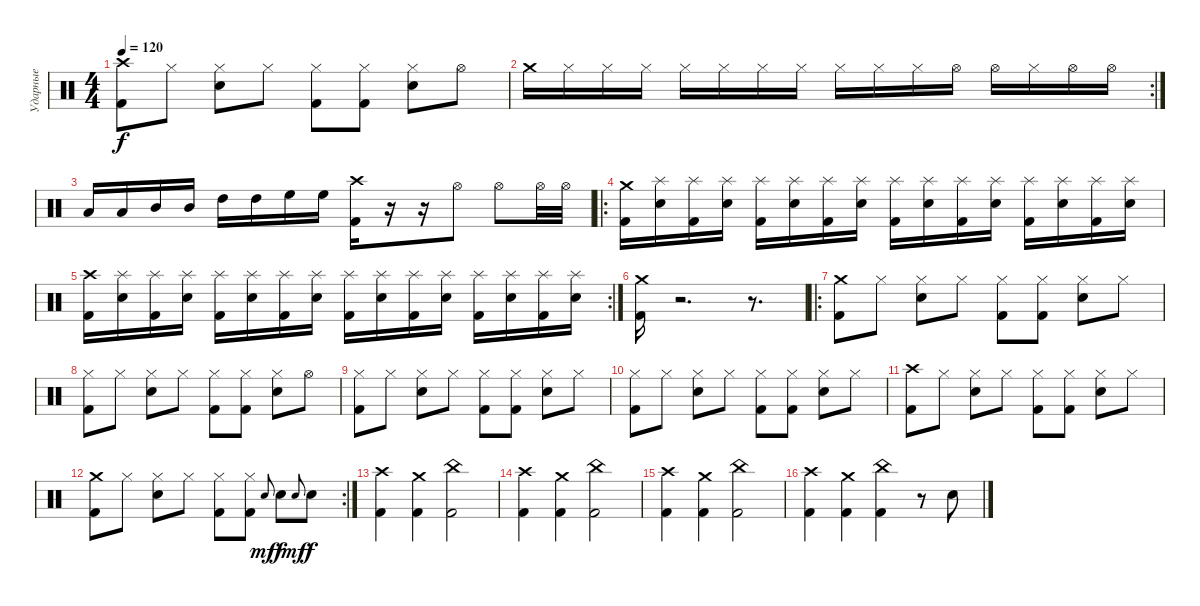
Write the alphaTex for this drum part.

\track ("Ударные" "Ударные") {instrument percussion}
\staff {score}
\articulation defaults
\ts (4 4)
\tempo 120
\clef neutral
\ks c
("Crash high (hit)" "Kick (hit) 2").8{dy f} "Hi-Hat (closed)".8 ("Hi-Hat (closed)" "Electric Snare (hit)").8 "Hi-Hat (closed)".8 ("Hi-Hat (closed)" "Kick (hit) 2").8 ("Hi-Hat (closed)" "Kick (hit) 2").8 ("Hi-Hat (closed)" "Electric Snare (hit)").8 "Hi-Hat (open)".8 |
\rc 2 "Crash medium (hit)".16 "Hi-Hat (closed)".16 "Hi-Hat (closed)".16 "Hi-Hat (closed)".16 "Hi-Hat (closed)".16 "Hi-Hat (closed)".16 "Hi-Hat (closed)".16 "Hi-Hat (closed)".16 "Hi-Hat (closed)".16 "Hi-Hat (closed)".16 "Hi-Hat (closed)".16 "Hi-Hat (open)".16 "Hi-Hat (open)".16 "Hi-Hat (closed)".16 "Hi-Hat (open)".16 "Hi-Hat (open)".16
|
"Low Tom (hit)".16 "Low Tom (hit)".16 "Mid Tom (hit)".16 "Mid Tom (hit)".16 "High Tom (hit)".16 "High Tom (hit)".16 "High Floor Tom (hit)".16 "High Floor Tom (hit)".16 ("Crash high (hit)" "Kick (hit) 2").16 r.16 r.16 "Hi-Hat (open)".8 "Hi-Hat (open)".8 "Hi-Hat (open)".32 "Hi-Hat (open)".32 |
\ro
("Crash medium (hit)" "Kick (hit) 2").16 ("Splash (hit)" "Electric Snare (hit)").16 ("Splash (hit)" "Kick (hit) 2").16 ("Splash (hit)" "Electric Snare (hit)").16 ("Splash (hit)" "Kick (hit) 2").16 ("Splash (hit)" "Electric Snare (hit)").16 ("Splash (hit)" "Kick (hit) 2").16 ("Splash (hit)" "Electric Snare (hit)").16 ("Splash (hit)" "Kick (hit) 2").16 ("Splash (hit)" "Electric Snare (hit)").16 ("Splash (hit)" "Kick (hit) 2").16 ("Splash (hit)" "Electric Snare (hit)").16 ("Splash (hit)" "Kick (hit) 2").16 ("Splash (hit)" "Electric Snare (hit)").16 ("Splash (hit)" "Kick (hit) 2").16 ("Splash (hit)" "Electric Snare (hit)").16 |
\rc 2
("Crash high (hit)" "Kick (hit) 2").16 ("Splash (hit)" "Electric Snare (hit)").16 ("Splash (hit)" "Kick (hit) 2").16 ("Splash (hit)" "Electric Snare (hit)").16 ("Splash (hit)" "Kick (hit) 2").16 ("Splash (hit)" "Electric Snare (hit)").16 ("Splash (hit)" "Kick (hit) 2").16 ("Splash (hit)" "Electric Snare (hit)").16 ("Splash (hit)" "Kick (hit) 2").16 ("Splash (hit)" "Electric Snare (hit)").16 ("Splash (hit)" "Kick (hit) 2").16 ("Splash (hit)" "Electric Snare (hit)").16 ("Splash (hit)" "Kick (hit) 2").16 ("Splash (hit)" "Electric Snare (hit)").16 ("Splash (hit)" "Kick (hit) 2").16 ("Splash (hit)" "Electric Snare (hit)").16 |
("Crash medium (hit)" "Kick (hit) 2").16 r.2{d} r.8{d} |
\ro
("Crash medium (hit)" "Kick (hit) 2").8 "Hi-Hat (closed)".8 ("Hi-Hat (closed)" "Electric Snare (hit)").8 "Hi-Hat (closed)".8 ("Hi-Hat (closed)" "Kick (hit) 2").8 ("Hi-Hat (closed)" "Kick (hit) 2").8 ("Hi-Hat (closed)" "Electric Snare (hit)").8 "Hi-Hat (closed)".8 |
("Hi-Hat (closed)" "Kick (hit) 2").8 "Hi-Hat (closed)".8 ("Hi-Hat (closed)" "Electric Snare (hit)").8 "Hi-Hat (closed)".8 ("Hi-Hat (closed)" "Kick (hit) 2").8 ("Hi-Hat (closed)" "Kick (hit) 2").8 ("Hi-Hat (closed)" "Electric Snare (hit)").8 "Hi-Hat (open)".8 |
("Hi-Hat (closed)" "Kick (hit) 2").8 "Hi-Hat (closed)".8 ("Hi-Hat (closed)" "Electric Snare (hit)").8 "Hi-Hat (closed)".8 ("Hi-Hat (closed)" "Kick (hit) 2").8 ("Hi-Hat (closed)" "Kick (hit) 2").8 ("Hi-Hat (closed)" "Electric Snare (hit)").8 "Hi-Hat (closed)".8 |
("Hi-Hat (closed)" "Kick (hit) 2").8 "Hi-Hat (closed)".8 ("Hi-Hat (closed)" "Electric Snare (hit)").8 "Hi-Hat (closed)".8 ("Hi-Hat (closed)" "Kick (hit) 2").8 ("Hi-Hat (closed)" "Kick (hit) 2").8 ("Hi-Hat (closed)" "Electric Snare (hit)").8 "Hi-Hat (closed)".8 |
("Crash high (hit)" "Kick (hit) 2").8 "Hi-Hat (closed)".8 ("Hi-Hat (closed)" "Electric Snare (hit)").8 "Hi-Hat (closed)".8 ("Hi-Hat (closed)" "Kick (hit) 2").8 ("Hi-Hat (closed)" "Kick (hit) 2").8 ("Hi-Hat (closed)" "Electric Snare (hit)").8 "Hi-Hat (closed)".8 |
\rc 2
("Crash medium (hit)" "Kick (hit) 2").8 "Hi-Hat (closed)".8 ("Hi-Hat (closed)" "Electric Snare (hit)").8 "Hi-Hat (closed)".8 ("Hi-Hat (closed)" "Kick (hit) 2").8 ("Hi-Hat (closed)" "Kick (hit) 2").8 "Electric Snare (hit)"{h}.8{gr onbeat dy mf} "Electric Snare (hit)".8{dy f} "Electric Snare (hit)".8{gr onbeat dy mf} "Electric Snare (hit)".8{dy f} |
("Crash high (hit)" "Kick (hit) 2").4 ("Crash medium (hit)" "Kick (hit) 2").4 ("China (hit)" "Kick (hit) 2").2 |
("Crash high (hit)" "Kick (hit) 2").4 ("Crash medium (hit)" "Kick (hit) 2").4 ("China (hit)" "Kick (hit) 2").2 |
("Crash high (hit)" "Kick (hit) 2").4 ("Crash medium (hit)" "Kick (hit) 2").4 ("China (hit)" "Kick (hit) 2").2 |
("Crash high (hit)" "Kick (hit) 2").4 ("Crash medium (hit)" "Kick (hit) 2").4 ("China (hit)" "Kick (hit) 2").4 r.8 "Electric Snare (hit)".8
